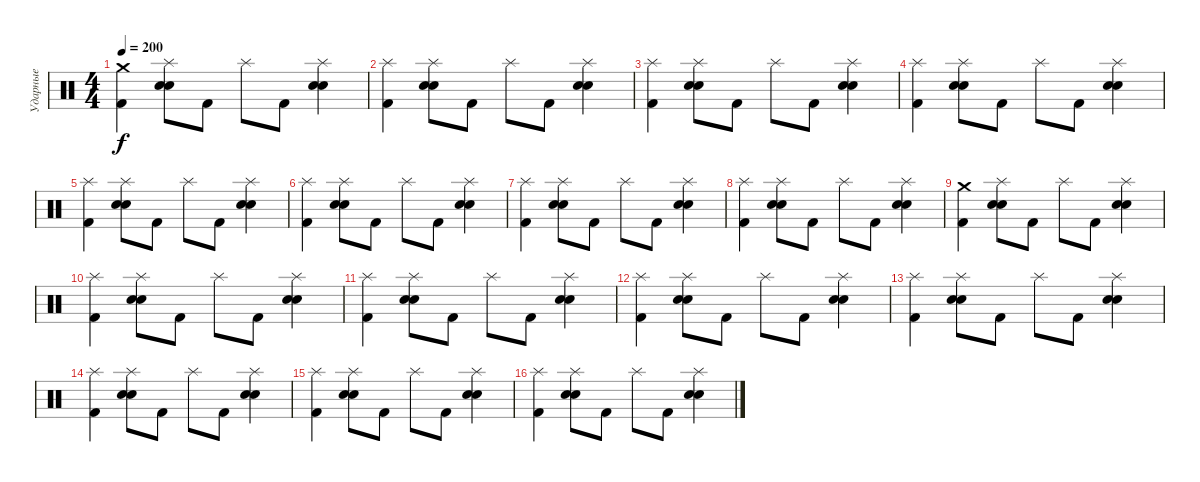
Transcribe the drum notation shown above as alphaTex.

\track ("Ударные" "Ударные") {instrument percussion}
\staff {score}
\articulation defaults
\ts (4 4)
\tempo 200
\clef neutral
\ks c
("Crash medium (hit)" "Kick (hit) 2").4{dy f} ("Splash (hit)" "Electric Snare (hit)" "Snare (hit) 2").8 "Kick (hit) 2".8 "Splash (hit)".8 "Kick (hit) 2".8 ("Splash (hit)" "Electric Snare (hit)" "Snare (hit) 2").4 |
("Splash (hit)" "Kick (hit) 2").4 ("Splash (hit)" "Electric Snare (hit)" "Snare (hit) 2").8 "Kick (hit) 2".8 "Splash (hit)".8 "Kick (hit) 2".8 ("Splash (hit)" "Electric Snare (hit)" "Snare (hit) 2").4 |
("Splash (hit)" "Kick (hit) 2").4 ("Splash (hit)" "Electric Snare (hit)" "Snare (hit) 2").8 "Kick (hit) 2".8 "Splash (hit)".8 "Kick (hit) 2".8 ("Splash (hit)" "Electric Snare (hit)" "Snare (hit) 2").4 |
("Splash (hit)" "Kick (hit) 2").4 ("Splash (hit)" "Electric Snare (hit)" "Snare (hit) 2").8 "Kick (hit) 2".8 "Splash (hit)".8 "Kick (hit) 2".8 ("Splash (hit)" "Electric Snare (hit)" "Snare (hit) 2").4 |
("Splash (hit)" "Kick (hit) 2").4 ("Splash (hit)" "Electric Snare (hit)" "Snare (hit) 2").8 "Kick (hit) 2".8 "Splash (hit)".8 "Kick (hit) 2".8 ("Splash (hit)" "Electric Snare (hit)" "Snare (hit) 2").4 |
("Splash (hit)" "Kick (hit) 2").4 ("Splash (hit)" "Electric Snare (hit)" "Snare (hit) 2").8 "Kick (hit) 2".8 "Splash (hit)".8 "Kick (hit) 2".8 ("Splash (hit)" "Electric Snare (hit)" "Snare (hit) 2").4 |
("Splash (hit)" "Kick (hit) 2").4 ("Splash (hit)" "Electric Snare (hit)" "Snare (hit) 2").8 "Kick (hit) 2".8 "Splash (hit)".8 "Kick (hit) 2".8 ("Splash (hit)" "Electric Snare (hit)" "Snare (hit) 2").4 |
("Splash (hit)" "Kick (hit) 2").4 ("Splash (hit)" "Electric Snare (hit)" "Snare (hit) 2").8 "Kick (hit) 2".8 "Splash (hit)".8 "Kick (hit) 2".8 ("Splash (hit)" "Electric Snare (hit)" "Snare (hit) 2").4 |
("Crash medium (hit)" "Kick (hit) 2").4 ("Splash (hit)" "Electric Snare (hit)" "Snare (hit) 2").8 "Kick (hit) 2".8 "Splash (hit)".8 "Kick (hit) 2".8 ("Splash (hit)" "Electric Snare (hit)" "Snare (hit) 2").4 |
("Splash (hit)" "Kick (hit) 2").4 ("Splash (hit)" "Electric Snare (hit)" "Snare (hit) 2").8 "Kick (hit) 2".8 "Splash (hit)".8 "Kick (hit) 2".8 ("Splash (hit)" "Electric Snare (hit)" "Snare (hit) 2").4 |
("Splash (hit)" "Kick (hit) 2").4 ("Splash (hit)" "Electric Snare (hit)" "Snare (hit) 2").8 "Kick (hit) 2".8 "Splash (hit)".8 "Kick (hit) 2".8 ("Splash (hit)" "Electric Snare (hit)" "Snare (hit) 2").4 |
("Splash (hit)" "Kick (hit) 2").4 ("Splash (hit)" "Electric Snare (hit)" "Snare (hit) 2").8 "Kick (hit) 2".8 "Splash (hit)".8 "Kick (hit) 2".8 ("Splash (hit)" "Electric Snare (hit)" "Snare (hit) 2").4 |
("Splash (hit)" "Kick (hit) 2").4 ("Splash (hit)" "Electric Snare (hit)" "Snare (hit) 2").8 "Kick (hit) 2".8 "Splash (hit)".8 "Kick (hit) 2".8 ("Splash (hit)" "Electric Snare (hit)" "Snare (hit) 2").4 |
("Splash (hit)" "Kick (hit) 2").4 ("Splash (hit)" "Electric Snare (hit)" "Snare (hit) 2").8 "Kick (hit) 2".8 "Splash (hit)".8 "Kick (hit) 2".8 ("Splash (hit)" "Electric Snare (hit)" "Snare (hit) 2").4 |
("Splash (hit)" "Kick (hit) 2").4 ("Splash (hit)" "Electric Snare (hit)" "Snare (hit) 2").8 "Kick (hit) 2".8 "Splash (hit)".8 "Kick (hit) 2".8 ("Splash (hit)" "Electric Snare (hit)" "Snare (hit) 2").4 |
("Splash (hit)" "Kick (hit) 2").4 ("Splash (hit)" "Electric Snare (hit)" "Snare (hit) 2").8 "Kick (hit) 2".8 "Splash (hit)".8 "Kick (hit) 2".8 ("Splash (hit)" "Electric Snare (hit)" "Snare (hit) 2").4
